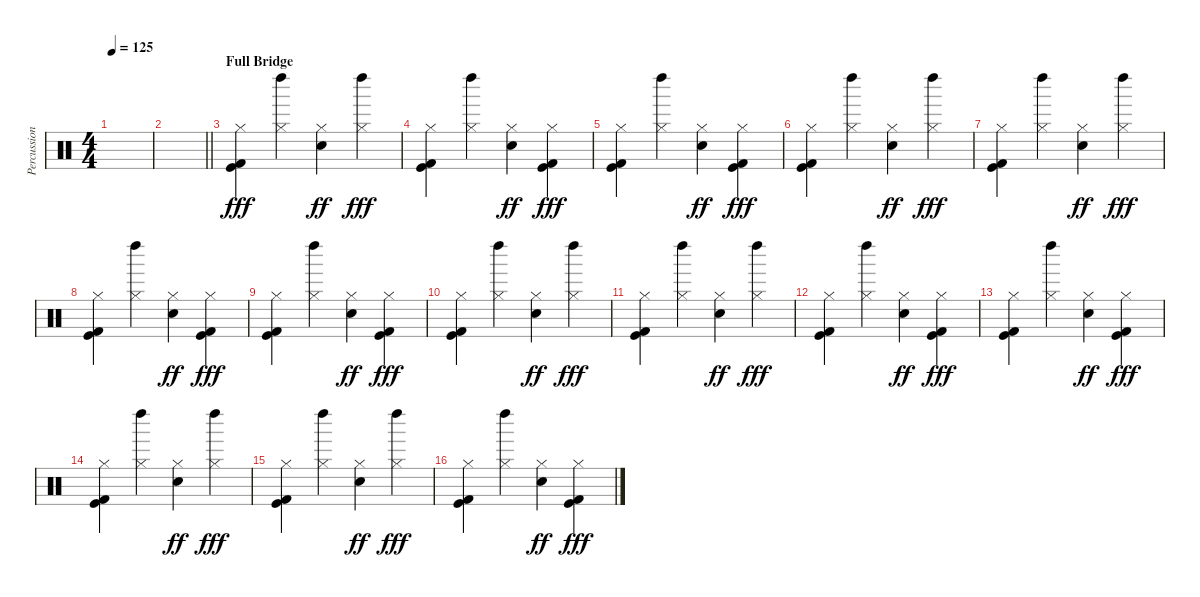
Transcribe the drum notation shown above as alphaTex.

\track ("Percussion" "Percussion") {instrument percussion}
\staff {score}
\articulation defaults
\ts (4 4)
\tempo 125
\clef neutral
\ks c
|
\barLineRight lightlight
|
\section ("" "Full Bridge")
("Hi-Hat (closed)" "Kick (hit)" "Kick (hit) 2").4{dy fff} ("Hi-Hat (closed)" "Left Maraca (hit)").4 ("Hi-Hat (closed)" "Snare (hit) 2").4{dy ff} ("Hi-Hat (closed)" "Left Maraca (hit)").4{dy fff} |
("Hi-Hat (closed)" "Kick (hit)" "Kick (hit) 2").4 ("Hi-Hat (closed)" "Left Maraca (hit)").4 ("Hi-Hat (closed)" "Snare (hit) 2").4{dy ff} ("Hi-Hat (closed)" "Kick (hit)" "Kick (hit) 2").4{dy fff} |
("Hi-Hat (closed)" "Kick (hit)" "Kick (hit) 2").4 ("Hi-Hat (closed)" "Left Maraca (hit)").4 ("Hi-Hat (closed)" "Snare (hit) 2").4{dy ff} ("Hi-Hat (closed)" "Kick (hit)" "Kick (hit) 2").4{dy fff} |
("Hi-Hat (closed)" "Kick (hit)" "Kick (hit) 2").4 ("Hi-Hat (closed)" "Left Maraca (hit)").4 ("Hi-Hat (closed)" "Snare (hit) 2").4{dy ff} ("Hi-Hat (closed)" "Left Maraca (hit)").4{dy fff} |
("Hi-Hat (closed)" "Kick (hit)" "Kick (hit) 2").4 ("Hi-Hat (closed)" "Left Maraca (hit)").4 ("Hi-Hat (closed)" "Snare (hit) 2").4{dy ff} ("Hi-Hat (closed)" "Left Maraca (hit)").4{dy fff} |
("Hi-Hat (closed)" "Kick (hit)" "Kick (hit) 2").4 ("Hi-Hat (closed)" "Left Maraca (hit)").4 ("Hi-Hat (closed)" "Snare (hit) 2").4{dy ff} ("Hi-Hat (closed)" "Kick (hit)" "Kick (hit) 2").4{dy fff} |
("Hi-Hat (closed)" "Kick (hit)" "Kick (hit) 2").4 ("Hi-Hat (closed)" "Left Maraca (hit)").4 ("Hi-Hat (closed)" "Snare (hit) 2").4{dy ff} ("Hi-Hat (closed)" "Kick (hit)" "Kick (hit) 2").4{dy fff} |
("Hi-Hat (closed)" "Kick (hit)" "Kick (hit) 2").4 ("Hi-Hat (closed)" "Left Maraca (hit)").4 ("Hi-Hat (closed)" "Snare (hit) 2").4{dy ff} ("Hi-Hat (closed)" "Left Maraca (hit)").4{dy fff} |
("Hi-Hat (closed)" "Kick (hit)" "Kick (hit) 2").4 ("Hi-Hat (closed)" "Left Maraca (hit)").4 ("Hi-Hat (closed)" "Snare (hit) 2").4{dy ff} ("Hi-Hat (closed)" "Left Maraca (hit)").4{dy fff} |
("Hi-Hat (closed)" "Kick (hit)" "Kick (hit) 2").4 ("Hi-Hat (closed)" "Left Maraca (hit)").4 ("Hi-Hat (closed)" "Snare (hit) 2").4{dy ff} ("Hi-Hat (closed)" "Kick (hit)" "Kick (hit) 2").4{dy fff} |
("Hi-Hat (closed)" "Kick (hit)" "Kick (hit) 2").4 ("Hi-Hat (closed)" "Left Maraca (hit)").4 ("Hi-Hat (closed)" "Snare (hit) 2").4{dy ff} ("Hi-Hat (closed)" "Kick (hit)" "Kick (hit) 2").4{dy fff} |
("Hi-Hat (closed)" "Kick (hit)" "Kick (hit) 2").4 ("Hi-Hat (closed)" "Left Maraca (hit)").4 ("Hi-Hat (closed)" "Snare (hit) 2").4{dy ff} ("Hi-Hat (closed)" "Left Maraca (hit)").4{dy fff} |
("Hi-Hat (closed)" "Kick (hit)" "Kick (hit) 2").4 ("Hi-Hat (closed)" "Left Maraca (hit)").4 ("Hi-Hat (closed)" "Snare (hit) 2").4{dy ff} ("Hi-Hat (closed)" "Left Maraca (hit)").4{dy fff} |
("Hi-Hat (closed)" "Kick (hit)" "Kick (hit) 2").4 ("Hi-Hat (closed)" "Left Maraca (hit)").4 ("Hi-Hat (closed)" "Snare (hit) 2").4{dy ff} ("Hi-Hat (closed)" "Kick (hit)" "Kick (hit) 2").4{dy fff}
